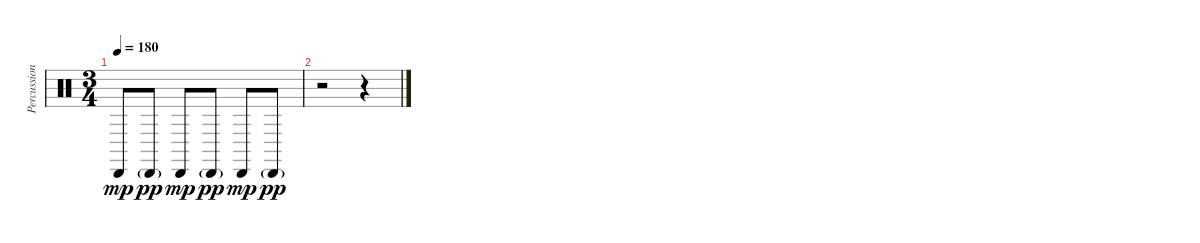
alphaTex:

\track ("Percussion" "Percussion") {instrument percussion}
\staff {score}
\articulation defaults
\ts (3 4)
\tempo 180
\clef neutral
\ks c "Cabasa (hit)".8{dy mp} "Cabasa (hit)"{g}.8{dy pp} "Cabasa (hit)".8{dy mp} "Cabasa (hit)"{g}.8{dy pp} "Cabasa (hit)".8{dy mp} "Cabasa (hit)"{g}.8{dy pp}
|
r.2 r.4
